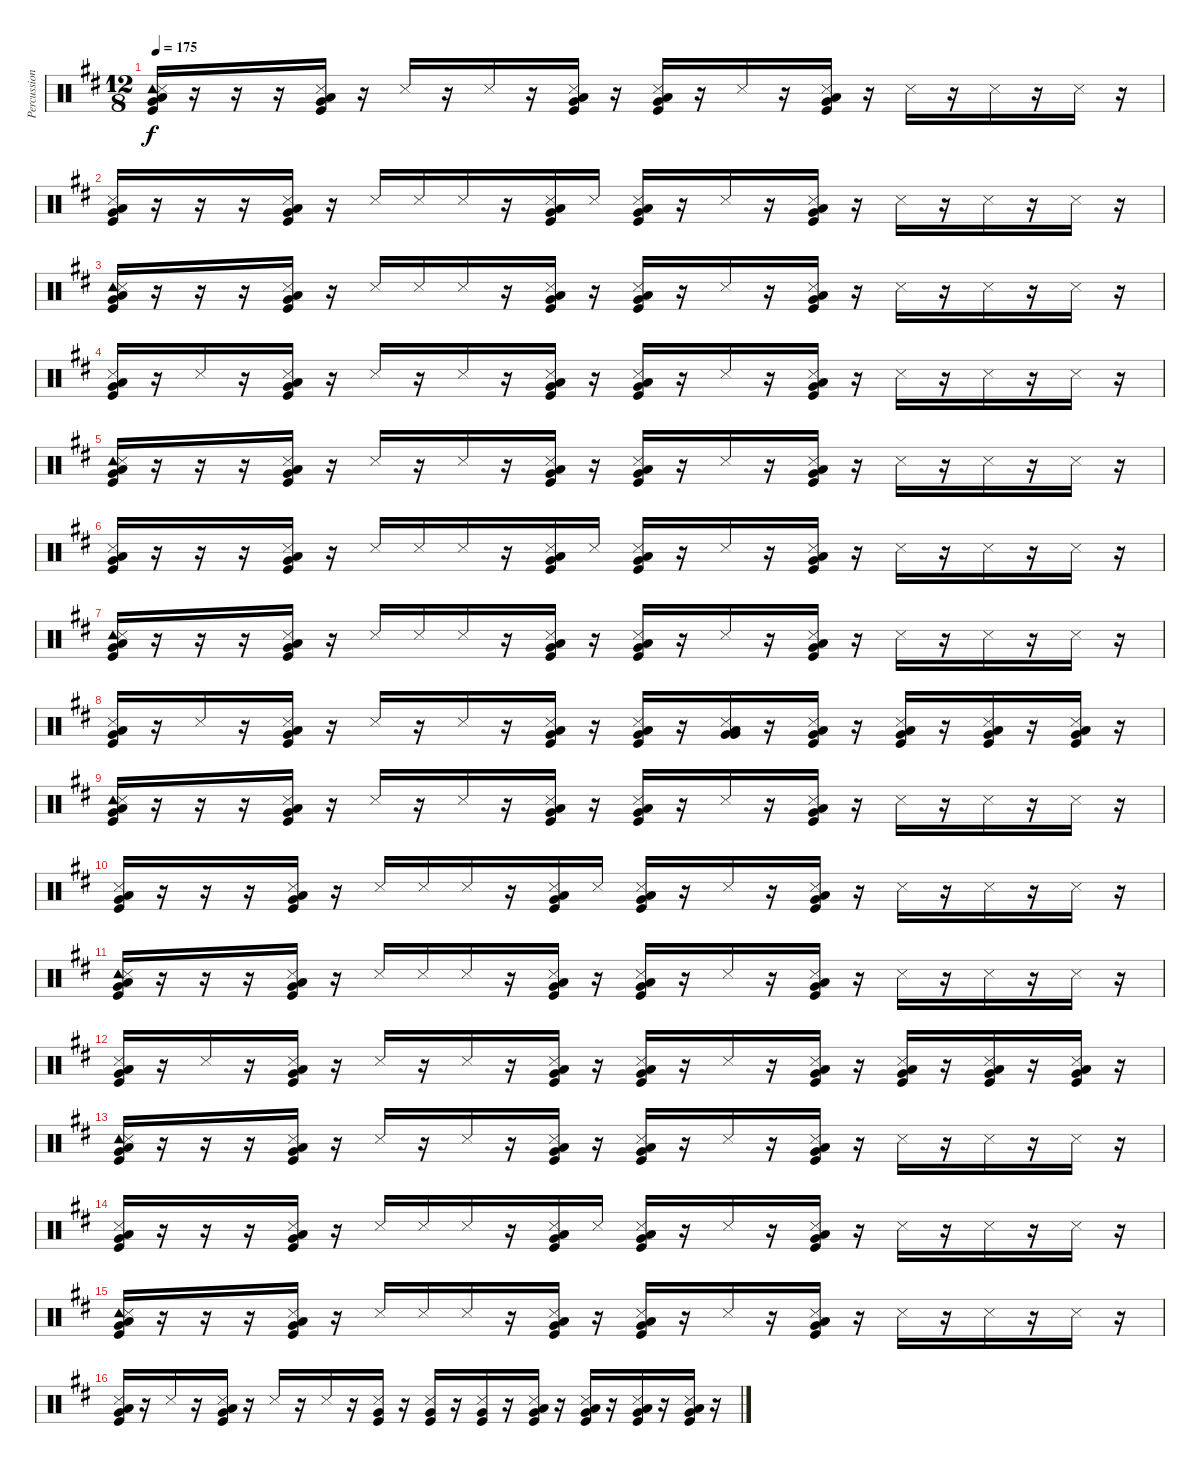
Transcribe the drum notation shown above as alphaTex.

\track ("Percussion" "Percussion") {instrument percussion}
\staff {score}
\articulation defaults
\ts (12 8)
\tempo 175
\clef neutral
\ks d
("Tambourine (hit)" "Snare (side stick) 3" "Low Floor Tom (hit)" "Very Low Tom (hit)" "Kick (hit)").16{dy f} r.16 r.16 r.16 ("Snare (side stick) 3" "Low Floor Tom (hit)" "Very Low Tom (hit)" "Kick (hit)").16 r.16 "Snare (side stick) 3".16 r.16 "Snare (side stick) 3".16 r.16 ("Snare (side stick) 3" "Low Floor Tom (hit)" "Very Low Tom (hit)" "Kick (hit)").16 r.16 ("Snare (side stick) 3" "Low Floor Tom (hit)" "Very Low Tom (hit)" "Kick (hit)").16 r.16 "Snare (side stick) 3".16 r.16 ("Snare (side stick) 3" "Low Floor Tom (hit)" "Very Low Tom (hit)" "Kick (hit)").16 r.16 "Snare (side stick) 3".16 r.16 "Snare (side stick) 3".16 r.16 "Snare (side stick) 3".16 r.16 |
("Snare (side stick) 3" "Low Floor Tom (hit)" "Very Low Tom (hit)" "Kick (hit)").16 r.16 r.16 r.16 ("Snare (side stick) 3" "Low Floor Tom (hit)" "Very Low Tom (hit)" "Kick (hit)").16 r.16 "Snare (side stick) 3".16 "Snare (side stick) 3".16 "Snare (side stick) 3".16 r.16 ("Snare (side stick) 3" "Low Floor Tom (hit)" "Very Low Tom (hit)" "Kick (hit)").16 "Snare (side stick) 3".16 ("Snare (side stick) 3" "Low Floor Tom (hit)" "Very Low Tom (hit)" "Kick (hit)").16 r.16 "Snare (side stick) 3".16 r.16 ("Snare (side stick) 3" "Low Floor Tom (hit)" "Very Low Tom (hit)" "Kick (hit)").16 r.16 "Snare (side stick) 3".16 r.16 "Snare (side stick) 3".16 r.16 "Snare (side stick) 3".16 r.16 |
("Tambourine (hit)" "Snare (side stick) 3" "Low Floor Tom (hit)" "Very Low Tom (hit)" "Kick (hit)").16 r.16 r.16 r.16 ("Snare (side stick) 3" "Low Floor Tom (hit)" "Very Low Tom (hit)" "Kick (hit)").16 r.16 "Snare (side stick) 3".16 "Snare (side stick) 3".16 "Snare (side stick) 3".16 r.16 ("Snare (side stick) 3" "Low Floor Tom (hit)" "Very Low Tom (hit)" "Kick (hit)").16 r.16 ("Snare (side stick) 3" "Low Floor Tom (hit)" "Very Low Tom (hit)" "Kick (hit)").16 r.16 "Snare (side stick) 3".16 r.16 ("Snare (side stick) 3" "Low Floor Tom (hit)" "Very Low Tom (hit)" "Kick (hit)").16 r.16 "Snare (side stick) 3".16 r.16 "Snare (side stick) 3".16 r.16 "Snare (side stick) 3".16 r.16 |
("Snare (side stick) 3" "Low Floor Tom (hit)" "Very Low Tom (hit)" "Kick (hit)").16 r.16 "Snare (side stick) 3".16 r.16 ("Snare (side stick) 3" "Low Floor Tom (hit)" "Very Low Tom (hit)" "Kick (hit)").16 r.16 "Snare (side stick) 3".16 r.16 "Snare (side stick) 3".16 r.16 ("Snare (side stick) 3" "Low Floor Tom (hit)" "Very Low Tom (hit)" "Kick (hit)").16 r.16 ("Snare (side stick) 3" "Low Floor Tom (hit)" "Very Low Tom (hit)" "Kick (hit)").16 r.16 "Snare (side stick) 3".16 r.16 ("Snare (side stick) 3" "Low Floor Tom (hit)" "Very Low Tom (hit)" "Kick (hit)").16 r.16 "Snare (side stick) 3".16 r.16 "Snare (side stick) 3".16 r.16 "Snare (side stick) 3".16 r.16 |
("Tambourine (hit)" "Snare (side stick) 3" "Low Floor Tom (hit)" "Very Low Tom (hit)" "Kick (hit)").16 r.16 r.16 r.16 ("Snare (side stick) 3" "Low Floor Tom (hit)" "Very Low Tom (hit)" "Kick (hit)").16 r.16 "Snare (side stick) 3".16 r.16 "Snare (side stick) 3".16 r.16 ("Snare (side stick) 3" "Low Floor Tom (hit)" "Very Low Tom (hit)" "Kick (hit)").16 r.16 ("Snare (side stick) 3" "Low Floor Tom (hit)" "Very Low Tom (hit)" "Kick (hit)").16 r.16 "Snare (side stick) 3".16 r.16 ("Snare (side stick) 3" "Low Floor Tom (hit)" "Very Low Tom (hit)" "Kick (hit)").16 r.16 "Snare (side stick) 3".16 r.16 "Snare (side stick) 3".16 r.16 "Snare (side stick) 3".16 r.16 |
("Snare (side stick) 3" "Low Floor Tom (hit)" "Very Low Tom (hit)" "Kick (hit)").16 r.16 r.16 r.16 ("Snare (side stick) 3" "Low Floor Tom (hit)" "Very Low Tom (hit)" "Kick (hit)").16 r.16 "Snare (side stick) 3".16 "Snare (side stick) 3".16 "Snare (side stick) 3".16 r.16 ("Snare (side stick) 3" "Low Floor Tom (hit)" "Very Low Tom (hit)" "Kick (hit)").16 "Snare (side stick) 3".16 ("Snare (side stick) 3" "Low Floor Tom (hit)" "Very Low Tom (hit)" "Kick (hit)").16 r.16 "Snare (side stick) 3".16 r.16 ("Snare (side stick) 3" "Low Floor Tom (hit)" "Very Low Tom (hit)" "Kick (hit)").16 r.16 "Snare (side stick) 3".16 r.16 "Snare (side stick) 3".16 r.16 "Snare (side stick) 3".16 r.16 |
("Tambourine (hit)" "Snare (side stick) 3" "Low Floor Tom (hit)" "Very Low Tom (hit)" "Kick (hit)").16 r.16 r.16 r.16 ("Snare (side stick) 3" "Low Floor Tom (hit)" "Very Low Tom (hit)" "Kick (hit)").16 r.16 "Snare (side stick) 3".16 "Snare (side stick) 3".16 "Snare (side stick) 3".16 r.16 ("Snare (side stick) 3" "Low Floor Tom (hit)" "Very Low Tom (hit)" "Kick (hit)").16 r.16 ("Snare (side stick) 3" "Low Floor Tom (hit)" "Very Low Tom (hit)" "Kick (hit)").16 r.16 "Snare (side stick) 3".16 r.16 ("Snare (side stick) 3" "Low Floor Tom (hit)" "Very Low Tom (hit)" "Kick (hit)").16 r.16 "Snare (side stick) 3".16 r.16 "Snare (side stick) 3".16 r.16 "Snare (side stick) 3".16 r.16 |
("Snare (side stick) 3" "Low Floor Tom (hit)" "Very Low Tom (hit)" "Kick (hit)").16 r.16 "Snare (side stick) 3".16 r.16 ("Snare (side stick) 3" "Low Floor Tom (hit)" "Very Low Tom (hit)" "Kick (hit)").16 r.16 "Snare (side stick) 3".16 r.16 "Snare (side stick) 3".16 r.16 ("Snare (side stick) 3" "Low Floor Tom (hit)" "Very Low Tom (hit)" "Kick (hit)").16 r.16 ("Snare (side stick) 3" "Low Floor Tom (hit)" "Very Low Tom (hit)" "Kick (hit)").16 r.16 ("Snare (side stick) 3" "Low Floor Tom (hit)" "Very Low Tom (hit)" "Very Low Tom (hit)").16 r.16 ("Snare (side stick) 3" "Low Floor Tom (hit)" "Very Low Tom (hit)" "Kick (hit)").16 r.16 ("Snare (side stick) 3" "Low Floor Tom (hit)" "Very Low Tom (hit)" "Kick (hit)").16 r.16 ("Snare (side stick) 3" "Low Floor Tom (hit)" "Very Low Tom (hit)" "Kick (hit)").16 r.16 ("Snare (side stick) 3" "Low Floor Tom (hit)" "Very Low Tom (hit)" "Kick (hit)").16 r.16 |
("Tambourine (hit)" "Snare (side stick) 3" "Low Floor Tom (hit)" "Very Low Tom (hit)" "Kick (hit)").16 r.16 r.16 r.16 ("Snare (side stick) 3" "Low Floor Tom (hit)" "Very Low Tom (hit)" "Kick (hit)").16 r.16 "Snare (side stick) 3".16 r.16 "Snare (side stick) 3".16 r.16 ("Snare (side stick) 3" "Low Floor Tom (hit)" "Very Low Tom (hit)" "Kick (hit)").16 r.16 ("Snare (side stick) 3" "Low Floor Tom (hit)" "Very Low Tom (hit)" "Kick (hit)").16 r.16 "Snare (side stick) 3".16 r.16 ("Snare (side stick) 3" "Low Floor Tom (hit)" "Very Low Tom (hit)" "Kick (hit)").16 r.16 "Snare (side stick) 3".16 r.16 "Snare (side stick) 3".16 r.16 "Snare (side stick) 3".16 r.16 |
("Snare (side stick) 3" "Low Floor Tom (hit)" "Very Low Tom (hit)" "Kick (hit)").16 r.16 r.16 r.16 ("Snare (side stick) 3" "Low Floor Tom (hit)" "Very Low Tom (hit)" "Kick (hit)").16 r.16 "Snare (side stick) 3".16 "Snare (side stick) 3".16 "Snare (side stick) 3".16 r.16 ("Snare (side stick) 3" "Low Floor Tom (hit)" "Very Low Tom (hit)" "Kick (hit)").16 "Snare (side stick) 3".16 ("Snare (side stick) 3" "Low Floor Tom (hit)" "Very Low Tom (hit)" "Kick (hit)").16 r.16 "Snare (side stick) 3".16 r.16 ("Snare (side stick) 3" "Low Floor Tom (hit)" "Very Low Tom (hit)" "Kick (hit)").16 r.16 "Snare (side stick) 3".16 r.16 "Snare (side stick) 3".16 r.16 "Snare (side stick) 3".16 r.16 |
("Tambourine (hit)" "Snare (side stick) 3" "Low Floor Tom (hit)" "Very Low Tom (hit)" "Kick (hit)").16 r.16 r.16 r.16 ("Snare (side stick) 3" "Low Floor Tom (hit)" "Very Low Tom (hit)" "Kick (hit)").16 r.16 "Snare (side stick) 3".16 "Snare (side stick) 3".16 "Snare (side stick) 3".16 r.16 ("Snare (side stick) 3" "Low Floor Tom (hit)" "Very Low Tom (hit)" "Kick (hit)").16 r.16 ("Snare (side stick) 3" "Low Floor Tom (hit)" "Very Low Tom (hit)" "Kick (hit)").16 r.16 "Snare (side stick) 3".16 r.16 ("Snare (side stick) 3" "Low Floor Tom (hit)" "Very Low Tom (hit)" "Kick (hit)").16 r.16 "Snare (side stick) 3".16 r.16 "Snare (side stick) 3".16 r.16 "Snare (side stick) 3".16 r.16 |
("Snare (side stick) 3" "Low Floor Tom (hit)" "Very Low Tom (hit)" "Kick (hit)").16 r.16 "Snare (side stick) 3".16 r.16 ("Snare (side stick) 3" "Low Floor Tom (hit)" "Very Low Tom (hit)" "Kick (hit)").16 r.16 "Snare (side stick) 3".16 r.16 "Snare (side stick) 3".16 r.16 ("Snare (side stick) 3" "Low Floor Tom (hit)" "Very Low Tom (hit)" "Kick (hit)").16 r.16 ("Snare (side stick) 3" "Low Floor Tom (hit)" "Very Low Tom (hit)" "Kick (hit)").16 r.16 "Snare (side stick) 3".16 r.16 ("Snare (side stick) 3" "Low Floor Tom (hit)" "Very Low Tom (hit)" "Kick (hit)").16 r.16 ("Snare (side stick) 3" "Low Floor Tom (hit)" "Very Low Tom (hit)" "Kick (hit)").16 r.16 ("Snare (side stick) 3" "Low Floor Tom (hit)" "Very Low Tom (hit)" "Kick (hit)").16 r.16 ("Snare (side stick) 3" "Low Floor Tom (hit)" "Very Low Tom (hit)" "Kick (hit)").16 r.16 |
("Tambourine (hit)" "Snare (side stick) 3" "Low Floor Tom (hit)" "Very Low Tom (hit)" "Kick (hit)").16 r.16 r.16 r.16 ("Snare (side stick) 3" "Low Floor Tom (hit)" "Very Low Tom (hit)" "Kick (hit)").16 r.16 "Snare (side stick) 3".16 r.16 "Snare (side stick) 3".16 r.16 ("Snare (side stick) 3" "Low Floor Tom (hit)" "Very Low Tom (hit)" "Kick (hit)").16 r.16 ("Snare (side stick) 3" "Low Floor Tom (hit)" "Very Low Tom (hit)" "Kick (hit)").16 r.16 "Snare (side stick) 3".16 r.16 ("Snare (side stick) 3" "Low Floor Tom (hit)" "Very Low Tom (hit)" "Kick (hit)").16 r.16 "Snare (side stick) 3".16 r.16 "Snare (side stick) 3".16 r.16 "Snare (side stick) 3".16 r.16 |
("Snare (side stick) 3" "Low Floor Tom (hit)" "Very Low Tom (hit)" "Kick (hit)").16 r.16 r.16 r.16 ("Snare (side stick) 3" "Low Floor Tom (hit)" "Very Low Tom (hit)" "Kick (hit)").16 r.16 "Snare (side stick) 3".16 "Snare (side stick) 3".16 "Snare (side stick) 3".16 r.16 ("Snare (side stick) 3" "Low Floor Tom (hit)" "Very Low Tom (hit)" "Kick (hit)").16 "Snare (side stick) 3".16 ("Snare (side stick) 3" "Low Floor Tom (hit)" "Very Low Tom (hit)" "Kick (hit)").16 r.16 "Snare (side stick) 3".16 r.16 ("Snare (side stick) 3" "Low Floor Tom (hit)" "Very Low Tom (hit)" "Kick (hit)").16 r.16 "Snare (side stick) 3".16 r.16 "Snare (side stick) 3".16 r.16 "Snare (side stick) 3".16 r.16 |
("Tambourine (hit)" "Snare (side stick) 3" "Low Floor Tom (hit)" "Very Low Tom (hit)" "Kick (hit)").16 r.16 r.16 r.16 ("Snare (side stick) 3" "Low Floor Tom (hit)" "Very Low Tom (hit)" "Kick (hit)").16 r.16 "Snare (side stick) 3".16 "Snare (side stick) 3".16 "Snare (side stick) 3".16 r.16 ("Snare (side stick) 3" "Low Floor Tom (hit)" "Very Low Tom (hit)" "Kick (hit)").16 r.16 ("Snare (side stick) 3" "Low Floor Tom (hit)" "Very Low Tom (hit)" "Kick (hit)").16 r.16 "Snare (side stick) 3".16 r.16 ("Snare (side stick) 3" "Low Floor Tom (hit)" "Very Low Tom (hit)" "Kick (hit)").16 r.16 "Snare (side stick) 3".16 r.16 "Snare (side stick) 3".16 r.16 "Snare (side stick) 3".16 r.16 |
("Snare (side stick) 3" "Low Floor Tom (hit)" "Very Low Tom (hit)" "Kick (hit)").16 r.16 "Snare (side stick) 3".16 r.16 ("Snare (side stick) 3" "Low Floor Tom (hit)" "Very Low Tom (hit)" "Kick (hit)").16 r.16 "Snare (side stick) 3".16 r.16 "Snare (side stick) 3".16 r.16 ("Snare (side stick) 3" "Very Low Tom (hit)" "Kick (hit)").16 r.16 ("Snare (side stick) 3" "Very Low Tom (hit)" "Kick (hit)").16 r.16 ("Snare (side stick) 3" "Very Low Tom (hit)" "Kick (hit)").16 r.16 ("Snare (side stick) 3" "Low Floor Tom (hit)" "Very Low Tom (hit)" "Kick (hit)").16 r.16 ("Snare (side stick) 3" "Low Floor Tom (hit)" "Very Low Tom (hit)" "Kick (hit)").16 r.16 ("Snare (side stick) 3" "Low Floor Tom (hit)" "Very Low Tom (hit)" "Kick (hit)").16 r.16 ("Snare (side stick) 3" "Low Floor Tom (hit)" "Very Low Tom (hit)" "Kick (hit)").16 r.16
